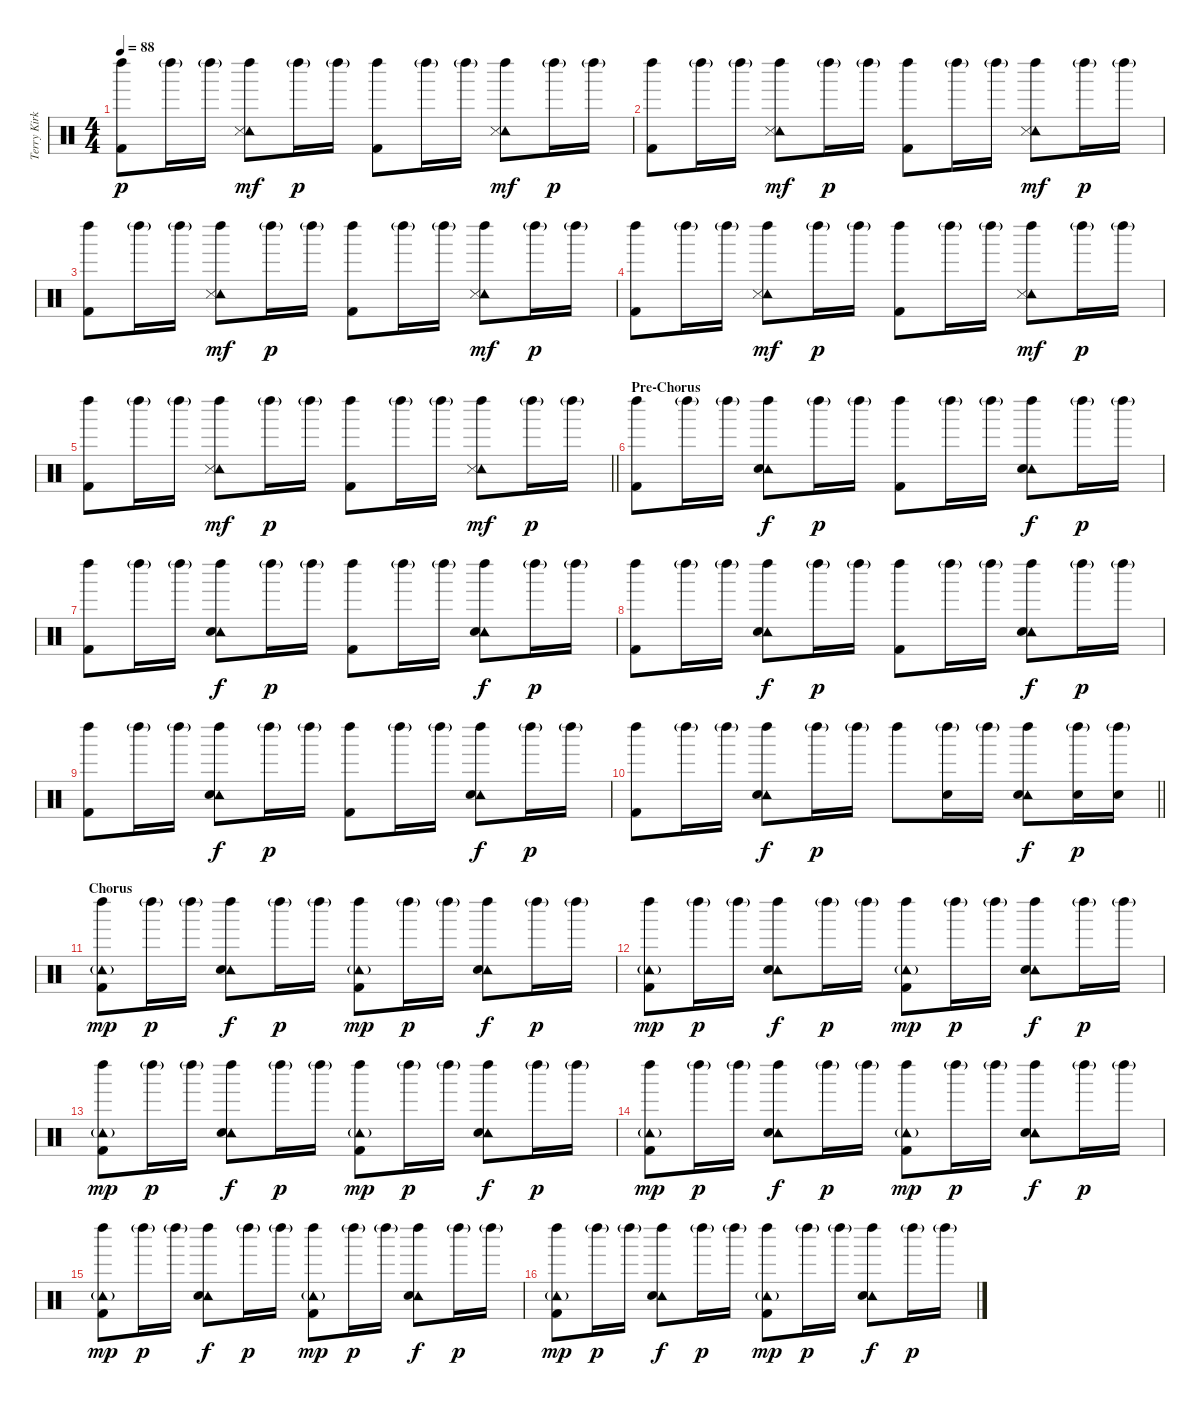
\track ("Terry Kirkbride " "Terry Kirk") {instrument percussion}
\staff {score}
\articulation defaults
\ts (4 4)
\tempo 88
\clef neutral
\ks c
("Left Maraca (hit)" "Kick (hit) 2").8{dy p} "Left Maraca (hit)"{g}.16 "Left Maraca (hit)"{g}.16 ("Left Maraca (hit)" "Tambourine (hit)" "Snare (side stick) 3").8{dy mf} "Left Maraca (hit)"{g}.16{dy p} "Left Maraca (hit)"{g}.16 ("Left Maraca (hit)" "Kick (hit) 2").8 "Left Maraca (hit)"{g}.16 "Left Maraca (hit)"{g}.16 ("Left Maraca (hit)" "Tambourine (hit)" "Snare (side stick) 3").8{dy mf} "Left Maraca (hit)"{g}.16{dy p} "Left Maraca (hit)"{g}.16 |
("Left Maraca (hit)" "Kick (hit) 2").8 "Left Maraca (hit)"{g}.16 "Left Maraca (hit)"{g}.16 ("Left Maraca (hit)" "Tambourine (hit)" "Snare (side stick) 3").8{dy mf} "Left Maraca (hit)"{g}.16{dy p} "Left Maraca (hit)"{g}.16 ("Left Maraca (hit)" "Kick (hit) 2").8 "Left Maraca (hit)"{g}.16 "Left Maraca (hit)"{g}.16 ("Left Maraca (hit)" "Tambourine (hit)" "Snare (side stick) 3").8{dy mf} "Left Maraca (hit)"{g}.16{dy p} "Left Maraca (hit)"{g}.16 |
("Left Maraca (hit)" "Kick (hit) 2").8 "Left Maraca (hit)"{g}.16 "Left Maraca (hit)"{g}.16 ("Left Maraca (hit)" "Tambourine (hit)" "Snare (side stick) 3").8{dy mf} "Left Maraca (hit)"{g}.16{dy p} "Left Maraca (hit)"{g}.16 ("Left Maraca (hit)" "Kick (hit) 2").8 "Left Maraca (hit)"{g}.16 "Left Maraca (hit)"{g}.16 ("Left Maraca (hit)" "Tambourine (hit)" "Snare (side stick) 3").8{dy mf} "Left Maraca (hit)"{g}.16{dy p} "Left Maraca (hit)"{g}.16 |
("Left Maraca (hit)" "Kick (hit) 2").8 "Left Maraca (hit)"{g}.16 "Left Maraca (hit)"{g}.16 ("Left Maraca (hit)" "Tambourine (hit)" "Snare (side stick) 3").8{dy mf} "Left Maraca (hit)"{g}.16{dy p} "Left Maraca (hit)"{g}.16 ("Left Maraca (hit)" "Kick (hit) 2").8 "Left Maraca (hit)"{g}.16 "Left Maraca (hit)"{g}.16 ("Left Maraca (hit)" "Tambourine (hit)" "Snare (side stick) 3").8{dy mf} "Left Maraca (hit)"{g}.16{dy p} "Left Maraca (hit)"{g}.16 |
\barLineRight lightlight
("Left Maraca (hit)" "Kick (hit) 2").8 "Left Maraca (hit)"{g}.16 "Left Maraca (hit)"{g}.16 ("Left Maraca (hit)" "Tambourine (hit)" "Snare (side stick) 3").8{dy mf} "Left Maraca (hit)"{g}.16{dy p} "Left Maraca (hit)"{g}.16 ("Left Maraca (hit)" "Kick (hit) 2").8 "Left Maraca (hit)"{g}.16 "Left Maraca (hit)"{g}.16 ("Left Maraca (hit)" "Tambourine (hit)" "Snare (side stick) 3").8{dy mf} "Left Maraca (hit)"{g}.16{dy p} "Left Maraca (hit)"{g}.16 |
\section ("" "Pre-Chorus")
("Left Maraca (hit)" "Kick (hit) 2").8 "Left Maraca (hit)"{g}.16 "Left Maraca (hit)"{g}.16 ("Left Maraca (hit)" "Tambourine (hit)" "Snare (hit) 2").8{dy f} "Left Maraca (hit)"{g}.16{dy p} "Left Maraca (hit)"{g}.16 ("Left Maraca (hit)" "Kick (hit) 2").8 "Left Maraca (hit)"{g}.16 "Left Maraca (hit)"{g}.16 ("Left Maraca (hit)" "Tambourine (hit)" "Snare (hit) 2").8{dy f} "Left Maraca (hit)"{g}.16{dy p} "Left Maraca (hit)"{g}.16 |
("Left Maraca (hit)" "Kick (hit) 2").8 "Left Maraca (hit)"{g}.16 "Left Maraca (hit)"{g}.16 ("Left Maraca (hit)" "Tambourine (hit)" "Snare (hit) 2").8{dy f} "Left Maraca (hit)"{g}.16{dy p} "Left Maraca (hit)"{g}.16 ("Left Maraca (hit)" "Kick (hit) 2").8 "Left Maraca (hit)"{g}.16 "Left Maraca (hit)"{g}.16 ("Left Maraca (hit)" "Tambourine (hit)" "Snare (hit) 2").8{dy f} "Left Maraca (hit)"{g}.16{dy p} "Left Maraca (hit)"{g}.16 |
("Left Maraca (hit)" "Kick (hit) 2").8 "Left Maraca (hit)"{g}.16 "Left Maraca (hit)"{g}.16 ("Left Maraca (hit)" "Tambourine (hit)" "Snare (hit) 2").8{dy f} "Left Maraca (hit)"{g}.16{dy p} "Left Maraca (hit)"{g}.16 ("Left Maraca (hit)" "Kick (hit) 2").8 "Left Maraca (hit)"{g}.16 "Left Maraca (hit)"{g}.16 ("Left Maraca (hit)" "Tambourine (hit)" "Snare (hit) 2").8{dy f} "Left Maraca (hit)"{g}.16{dy p} "Left Maraca (hit)"{g}.16 |
("Left Maraca (hit)" "Kick (hit) 2").8 "Left Maraca (hit)"{g}.16 "Left Maraca (hit)"{g}.16 ("Left Maraca (hit)" "Tambourine (hit)" "Snare (hit) 2").8{dy f} "Left Maraca (hit)"{g}.16{dy p} "Left Maraca (hit)"{g}.16 ("Left Maraca (hit)" "Kick (hit) 2").8 "Left Maraca (hit)"{g}.16 "Left Maraca (hit)"{g}.16 ("Left Maraca (hit)" "Tambourine (hit)" "Snare (hit) 2").8{dy f} "Left Maraca (hit)"{g}.16{dy p} "Left Maraca (hit)"{g}.16 |
\barLineRight lightlight
("Left Maraca (hit)" "Kick (hit) 2").8 "Left Maraca (hit)"{g}.16 "Left Maraca (hit)"{g}.16 ("Left Maraca (hit)" "Tambourine (hit)" "Snare (hit) 2").8{dy f} "Left Maraca (hit)"{g}.16{dy p} "Left Maraca (hit)"{g}.16 "Left Maraca (hit)".8 ("Left Maraca (hit)"{g} "Snare (hit) 2").16 "Left Maraca (hit)"{g}.16 ("Left Maraca (hit)" "Tambourine (hit)" "Snare (hit) 2").8{dy f} ("Left Maraca (hit)"{g} "Snare (hit) 2").16{dy p} ("Left Maraca (hit)"{g} "Snare (hit) 2").16 |
\section ("" "Chorus")
("Left Maraca (hit)" "Tambourine (hit)"{g} "Kick (hit) 2").8{dy mp} "Left Maraca (hit)"{g}.16{dy p} "Left Maraca (hit)"{g}.16 ("Left Maraca (hit)" "Tambourine (hit)" "Snare (hit) 2").8{dy f} "Left Maraca (hit)"{g}.16{dy p} "Left Maraca (hit)"{g}.16 ("Left Maraca (hit)" "Tambourine (hit)"{g} "Kick (hit) 2").8{dy mp} "Left Maraca (hit)"{g}.16{dy p} "Left Maraca (hit)"{g}.16 ("Left Maraca (hit)" "Tambourine (hit)" "Snare (hit) 2").8{dy f} "Left Maraca (hit)"{g}.16{dy p} "Left Maraca (hit)"{g}.16 |
("Left Maraca (hit)" "Tambourine (hit)"{g} "Kick (hit) 2").8{dy mp} "Left Maraca (hit)"{g}.16{dy p} "Left Maraca (hit)"{g}.16 ("Left Maraca (hit)" "Tambourine (hit)" "Snare (hit) 2").8{dy f} "Left Maraca (hit)"{g}.16{dy p} "Left Maraca (hit)"{g}.16 ("Left Maraca (hit)" "Tambourine (hit)"{g} "Kick (hit) 2").8{dy mp} "Left Maraca (hit)"{g}.16{dy p} "Left Maraca (hit)"{g}.16 ("Left Maraca (hit)" "Tambourine (hit)" "Snare (hit) 2").8{dy f} "Left Maraca (hit)"{g}.16{dy p} "Left Maraca (hit)"{g}.16 |
("Left Maraca (hit)" "Tambourine (hit)"{g} "Kick (hit) 2").8{dy mp} "Left Maraca (hit)"{g}.16{dy p} "Left Maraca (hit)"{g}.16 ("Left Maraca (hit)" "Tambourine (hit)" "Snare (hit) 2").8{dy f} "Left Maraca (hit)"{g}.16{dy p} "Left Maraca (hit)"{g}.16 ("Left Maraca (hit)" "Tambourine (hit)"{g} "Kick (hit) 2").8{dy mp} "Left Maraca (hit)"{g}.16{dy p} "Left Maraca (hit)"{g}.16 ("Left Maraca (hit)" "Tambourine (hit)" "Snare (hit) 2").8{dy f} "Left Maraca (hit)"{g}.16{dy p} "Left Maraca (hit)"{g}.16 |
("Left Maraca (hit)" "Tambourine (hit)"{g} "Kick (hit) 2").8{dy mp} "Left Maraca (hit)"{g}.16{dy p} "Left Maraca (hit)"{g}.16 ("Left Maraca (hit)" "Tambourine (hit)" "Snare (hit) 2").8{dy f} "Left Maraca (hit)"{g}.16{dy p} "Left Maraca (hit)"{g}.16 ("Left Maraca (hit)" "Tambourine (hit)"{g} "Kick (hit) 2").8{dy mp} "Left Maraca (hit)"{g}.16{dy p} "Left Maraca (hit)"{g}.16 ("Left Maraca (hit)" "Tambourine (hit)" "Snare (hit) 2").8{dy f} "Left Maraca (hit)"{g}.16{dy p} "Left Maraca (hit)"{g}.16 |
("Left Maraca (hit)" "Tambourine (hit)"{g} "Kick (hit) 2").8{dy mp} "Left Maraca (hit)"{g}.16{dy p} "Left Maraca (hit)"{g}.16 ("Left Maraca (hit)" "Tambourine (hit)" "Snare (hit) 2").8{dy f} "Left Maraca (hit)"{g}.16{dy p} "Left Maraca (hit)"{g}.16 ("Left Maraca (hit)" "Tambourine (hit)"{g} "Kick (hit) 2").8{dy mp} "Left Maraca (hit)"{g}.16{dy p} "Left Maraca (hit)"{g}.16 ("Left Maraca (hit)" "Tambourine (hit)" "Snare (hit) 2").8{dy f} "Left Maraca (hit)"{g}.16{dy p} "Left Maraca (hit)"{g}.16 |
("Left Maraca (hit)" "Tambourine (hit)"{g} "Kick (hit) 2").8{dy mp} "Left Maraca (hit)"{g}.16{dy p} "Left Maraca (hit)"{g}.16 ("Left Maraca (hit)" "Tambourine (hit)" "Snare (hit) 2").8{dy f} "Left Maraca (hit)"{g}.16{dy p} "Left Maraca (hit)"{g}.16 ("Left Maraca (hit)" "Tambourine (hit)"{g} "Kick (hit) 2").8{dy mp} "Left Maraca (hit)"{g}.16{dy p} "Left Maraca (hit)"{g}.16 ("Left Maraca (hit)" "Tambourine (hit)" "Snare (hit) 2").8{dy f} "Left Maraca (hit)"{g}.16{dy p} "Left Maraca (hit)"{g}.16
